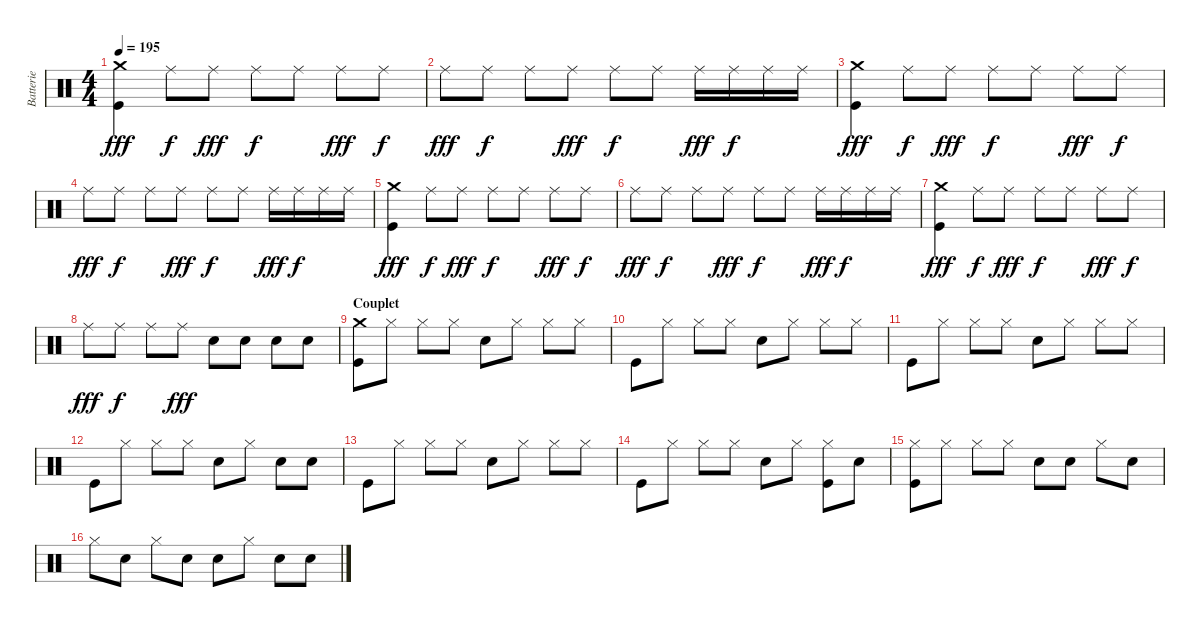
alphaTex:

\track ("Batterie" "Batterie") {instrument percussion}
\staff {score}
\articulation defaults
\ts (4 4)
\tempo 195
\clef neutral
\ks c
("Crash medium (hit)" "Kick (hit)").4{dy fff} "Ride (middle)".8{dy f} "Ride (middle)".8{dy fff} "Ride (middle)".8{dy f} "Ride (middle)".8 "Ride (middle)".8{dy fff} "Ride (middle)".8{dy f} |
"Ride (middle)".8{dy fff} "Ride (middle)".8{dy f} "Ride (middle)".8 "Ride (middle)".8{dy fff} "Ride (middle)".8{dy f} "Ride (middle)".8 "Ride (middle)".16{dy fff} "Ride (middle)".16{dy f} "Ride (middle)".16 "Ride (middle)".16 |
("Crash medium (hit)" "Kick (hit)").4{dy fff} "Ride (middle)".8{dy f} "Ride (middle)".8{dy fff} "Ride (middle)".8{dy f} "Ride (middle)".8 "Ride (middle)".8{dy fff} "Ride (middle)".8{dy f} |
"Ride (middle)".8{dy fff} "Ride (middle)".8{dy f} "Ride (middle)".8 "Ride (middle)".8{dy fff} "Ride (middle)".8{dy f} "Ride (middle)".8 "Ride (middle)".16{dy fff} "Ride (middle)".16{dy f} "Ride (middle)".16 "Ride (middle)".16 |
("Crash medium (hit)" "Kick (hit)").4{dy fff} "Ride (middle)".8{dy f} "Ride (middle)".8{dy fff} "Ride (middle)".8{dy f} "Ride (middle)".8 "Ride (middle)".8{dy fff} "Ride (middle)".8{dy f} |
"Ride (middle)".8{dy fff} "Ride (middle)".8{dy f} "Ride (middle)".8 "Ride (middle)".8{dy fff} "Ride (middle)".8{dy f} "Ride (middle)".8 "Ride (middle)".16{dy fff} "Ride (middle)".16{dy f} "Ride (middle)".16 "Ride (middle)".16 |
("Crash medium (hit)" "Kick (hit)").4{dy fff} "Ride (middle)".8{dy f} "Ride (middle)".8{dy fff} "Ride (middle)".8{dy f} "Ride (middle)".8 "Ride (middle)".8{dy fff} "Ride (middle)".8{dy f} |
"Ride (middle)".8{dy fff} "Ride (middle)".8{dy f} "Ride (middle)".8 "Ride (middle)".8{dy fff} "Electric Snare (hit)".8 "Electric Snare (hit)".8 "Electric Snare (hit)".8 "Electric Snare (hit)".8 |
\section ("" "Couplet")
("Crash medium (hit)" "Kick (hit)").8 "Hi-Hat (closed)".8 "Hi-Hat (closed)".8 "Hi-Hat (closed)".8 "Electric Snare (hit)".8 "Hi-Hat (closed)".8 "Hi-Hat (closed)".8 "Hi-Hat (closed)".8 |
"Kick (hit)".8 "Hi-Hat (closed)".8 "Hi-Hat (closed)".8 "Hi-Hat (closed)".8 "Electric Snare (hit)".8 "Hi-Hat (closed)".8 "Hi-Hat (closed)".8 "Hi-Hat (closed)".8 |
"Kick (hit)".8 "Hi-Hat (closed)".8 "Hi-Hat (closed)".8 "Hi-Hat (closed)".8 "Electric Snare (hit)".8 "Hi-Hat (closed)".8 "Hi-Hat (closed)".8 "Hi-Hat (closed)".8 |
"Kick (hit)".8 "Hi-Hat (closed)".8 "Hi-Hat (closed)".8 "Hi-Hat (closed)".8 "Electric Snare (hit)".8 "Hi-Hat (closed)".8 "Electric Snare (hit)".8 "Electric Snare (hit)".8 |
"Kick (hit)".8 "Hi-Hat (closed)".8 "Hi-Hat (closed)".8 "Hi-Hat (closed)".8 "Electric Snare (hit)".8 "Hi-Hat (closed)".8 "Hi-Hat (closed)".8 "Hi-Hat (closed)".8 |
"Kick (hit)".8 "Hi-Hat (closed)".8 "Hi-Hat (closed)".8 "Hi-Hat (closed)".8 "Electric Snare (hit)".8 "Hi-Hat (closed)".8 ("Hi-Hat (closed)" "Kick (hit)").8 "Electric Snare (hit)".8 |
("Hi-Hat (closed)" "Kick (hit)").8 "Hi-Hat (closed)".8 "Hi-Hat (closed)".8 "Hi-Hat (closed)".8 "Electric Snare (hit)".8 "Electric Snare (hit)".8 "Hi-Hat (closed)".8 "Electric Snare (hit)".8 |
"Hi-Hat (closed)".8 "Electric Snare (hit)".8 "Hi-Hat (closed)".8 "Electric Snare (hit)".8 "Electric Snare (hit)".8 "Hi-Hat (closed)".8 "Electric Snare (hit)".8 "Electric Snare (hit)".8
